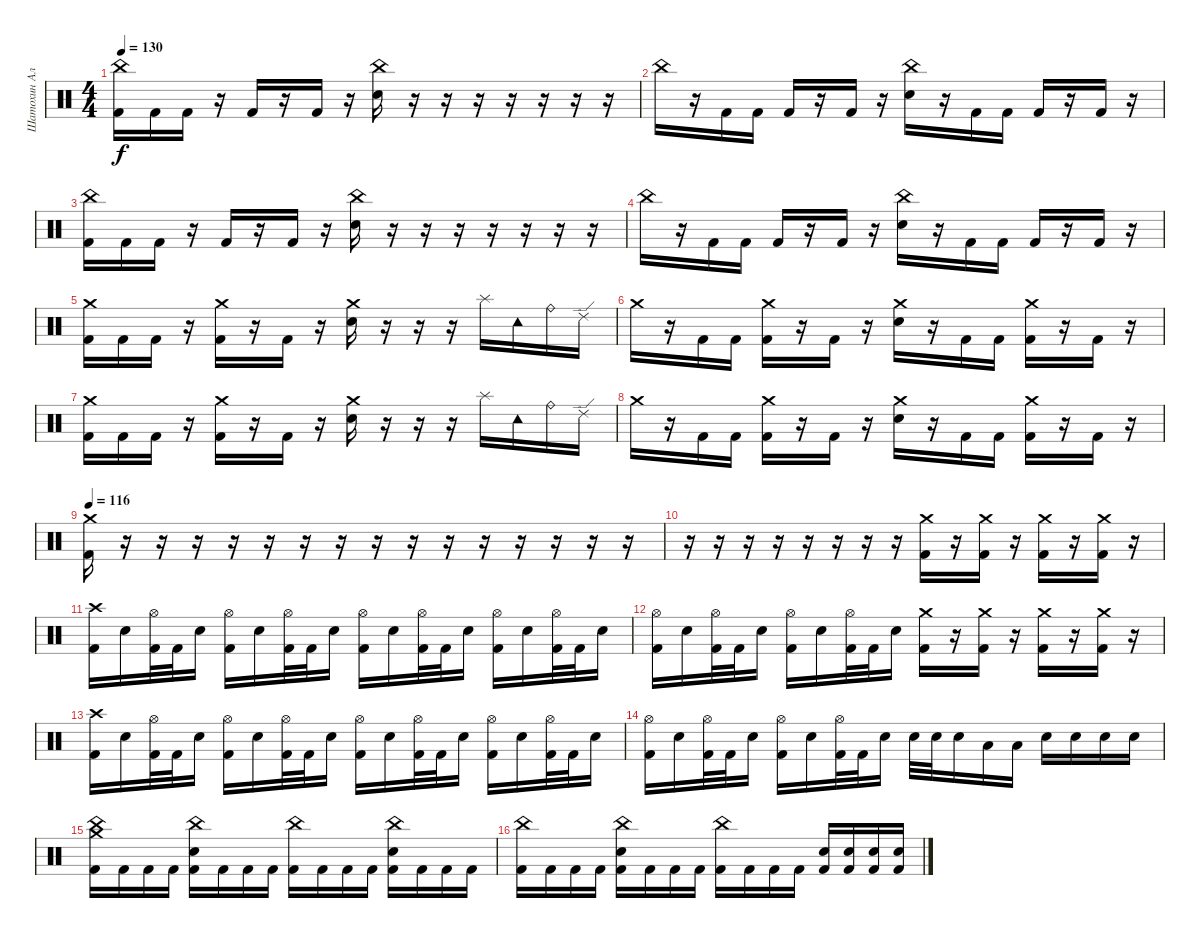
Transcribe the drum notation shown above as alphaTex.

\track ("Шатохин Алексей" "Шатохин Ал") {instrument percussion}
\staff {score}
\articulation defaults
\ts (4 4)
\tempo 130
\clef neutral
\ks c
("China (hit)" "Kick (hit) 2").16{dy f} "Kick (hit) 2".16 "Kick (hit) 2".16 r.16 "Kick (hit) 2".16 r.16 "Kick (hit) 2".16 r.16 ("China (hit)" "Electric Snare (hit)").16 r.16 r.16 r.16 r.16 r.16 r.16 r.16 |
"China (hit)".16 r.16 "Kick (hit) 2".16 "Kick (hit) 2".16 "Kick (hit) 2".16 r.16 "Kick (hit) 2".16 r.16 ("China (hit)" "Electric Snare (hit)").16 r.16 "Kick (hit) 2".16 "Kick (hit) 2".16 "Kick (hit) 2".16 r.16 "Kick (hit) 2".16 r.16 |
("China (hit)" "Kick (hit) 2").16 "Kick (hit) 2".16 "Kick (hit) 2".16 r.16 "Kick (hit) 2".16 r.16 "Kick (hit) 2".16 r.16 ("China (hit)" "Electric Snare (hit)").16 r.16 r.16 r.16 r.16 r.16 r.16 r.16 |
"China (hit)".16 r.16 "Kick (hit) 2".16 "Kick (hit) 2".16 "Kick (hit) 2".16 r.16 "Kick (hit) 2".16 r.16 ("China (hit)" "Electric Snare (hit)").16 r.16 "Kick (hit) 2".16 "Kick (hit) 2".16 "Kick (hit) 2".16 r.16 "Kick (hit) 2".16 r.16 |
("Crash medium (hit)" "Kick (hit) 2").16 "Kick (hit) 2".16 "Kick (hit) 2".16 r.16 ("Crash medium (hit)" "Kick (hit) 2").16 r.16 "Kick (hit) 2".16 r.16 ("Crash medium (hit)" "Electric Snare (hit)").16 r.16 r.16 r.16 "Splash (hit)".16 "Tambourine (hit)".16 "Ride (bell)".16 "Ride (edge) 2".16 |
"Crash medium (hit)".16 r.16 "Kick (hit) 2".16 "Kick (hit) 2".16 ("Crash medium (hit)" "Kick (hit) 2").16 r.16 "Kick (hit) 2".16 r.16 ("Crash medium (hit)" "Electric Snare (hit)").16 r.16 "Kick (hit) 2".16 "Kick (hit) 2".16 ("Crash medium (hit)" "Kick (hit) 2").16 r.16 "Kick (hit) 2".16 r.16 |
("Crash medium (hit)" "Kick (hit) 2").16 "Kick (hit) 2".16 "Kick (hit) 2".16 r.16 ("Crash medium (hit)" "Kick (hit) 2").16 r.16 "Kick (hit) 2".16 r.16 ("Crash medium (hit)" "Electric Snare (hit)").16 r.16 r.16 r.16 "Splash (hit)".16 "Tambourine (hit)".16 "Ride (bell)".16 "Ride (edge) 2".16 |
"Crash medium (hit)".16 r.16 "Kick (hit) 2".16 "Kick (hit) 2".16 ("Crash medium (hit)" "Kick (hit) 2").16 r.16 "Kick (hit) 2".16 r.16 ("Crash medium (hit)" "Electric Snare (hit)").16 r.16 "Kick (hit) 2".16 "Kick (hit) 2".16 ("Crash medium (hit)" "Kick (hit) 2").16 r.16 "Kick (hit) 2".16 r.16 |
\tempo 116
("Crash medium (hit)" "Kick (hit) 2").16 r.16 r.16 r.16 r.16 r.16 r.16 r.16 r.16 r.16 r.16 r.16 r.16 r.16 r.16 r.16 |
r.16 r.16 r.16 r.16 r.16 r.16 r.16 r.16 ("Crash medium (hit)" "Kick (hit) 2").16 r.16 ("Crash medium (hit)" "Kick (hit) 2").16 r.16 ("Crash medium (hit)" "Kick (hit) 2").16 r.16 ("Crash medium (hit)" "Kick (hit) 2").16 r.16 |
("Crash high (hit)" "Kick (hit) 2").16 "Electric Snare (hit)".16 ("Hi-Hat (open)" "Kick (hit) 2").32 "Kick (hit) 2".32 "Electric Snare (hit)".16 ("Hi-Hat (open)" "Kick (hit) 2").16 "Electric Snare (hit)".16 ("Hi-Hat (open)" "Kick (hit) 2").32 "Kick (hit) 2".32 "Electric Snare (hit)".16 ("Hi-Hat (open)" "Kick (hit) 2").16 "Electric Snare (hit)".16 ("Hi-Hat (open)" "Kick (hit) 2").32 "Kick (hit) 2".32 "Electric Snare (hit)".16 ("Hi-Hat (open)" "Kick (hit) 2").16 "Electric Snare (hit)".16 ("Hi-Hat (open)" "Kick (hit) 2").32 "Kick (hit) 2".32 "Electric Snare (hit)".16 |
("Hi-Hat (open)" "Kick (hit) 2").16 "Electric Snare (hit)".16 ("Hi-Hat (open)" "Kick (hit) 2").32 "Kick (hit) 2".32 "Electric Snare (hit)".16 ("Hi-Hat (open)" "Kick (hit) 2").16 "Electric Snare (hit)".16 ("Hi-Hat (open)" "Kick (hit) 2").32 "Kick (hit) 2".32 "Electric Snare (hit)".16 ("Crash medium (hit)" "Kick (hit) 2").16 r.16 ("Crash medium (hit)" "Kick (hit) 2").16 r.16 ("Crash medium (hit)" "Kick (hit) 2").16 r.16 ("Crash medium (hit)" "Kick (hit) 2").16 r.16 |
("Crash high (hit)" "Kick (hit) 2").16 "Electric Snare (hit)".16 ("Hi-Hat (open)" "Kick (hit) 2").32 "Kick (hit) 2".32 "Electric Snare (hit)".16 ("Hi-Hat (open)" "Kick (hit) 2").16 "Electric Snare (hit)".16 ("Hi-Hat (open)" "Kick (hit) 2").32 "Kick (hit) 2".32 "Electric Snare (hit)".16 ("Hi-Hat (open)" "Kick (hit) 2").16 "Electric Snare (hit)".16 ("Hi-Hat (open)" "Kick (hit) 2").32 "Kick (hit) 2".32 "Electric Snare (hit)".16 ("Hi-Hat (open)" "Kick (hit) 2").16 "Electric Snare (hit)".16 ("Hi-Hat (open)" "Kick (hit) 2").32 "Kick (hit) 2".32 "Electric Snare (hit)".16 |
("Hi-Hat (open)" "Kick (hit) 2").16 "Electric Snare (hit)".16 ("Hi-Hat (open)" "Kick (hit) 2").32 "Kick (hit) 2".32 "Electric Snare (hit)".16 ("Hi-Hat (open)" "Kick (hit) 2").16 "Electric Snare (hit)".16 ("Hi-Hat (open)" "Kick (hit) 2").32 "Kick (hit) 2".32 "Electric Snare (hit)".16 "Electric Snare (hit)".32 "Electric Snare (hit)".32 "Electric Snare (hit)".16 "Low Tom (hit)".16 "Low Tom (hit)".16 "Electric Snare (hit)".16 "Electric Snare (hit)".16 "Electric Snare (hit)".16 "Electric Snare (hit)".16 |
("Crash medium (hit)" "China (hit)" "Kick (hit) 2").16 "Kick (hit) 2".16 "Kick (hit) 2".16 "Kick (hit) 2".16 ("China (hit)" "Electric Snare (hit)" "Kick (hit) 2").16 "Kick (hit) 2".16 "Kick (hit) 2".16 "Kick (hit) 2".16 ("China (hit)" "Kick (hit) 2").16 "Kick (hit) 2".16 "Kick (hit) 2".16 "Kick (hit) 2".16 ("China (hit)" "Electric Snare (hit)" "Kick (hit) 2").16 "Kick (hit) 2".16 "Kick (hit) 2".16 "Kick (hit) 2".16 |
("China (hit)" "Kick (hit) 2").16 "Kick (hit) 2".16 "Kick (hit) 2".16 "Kick (hit) 2".16 ("China (hit)" "Electric Snare (hit)" "Kick (hit) 2").16 "Kick (hit) 2".16 "Kick (hit) 2".16 "Kick (hit) 2".16 ("China (hit)" "Kick (hit) 2").16 "Kick (hit) 2".16 "Kick (hit) 2".16 "Kick (hit) 2".16 ("Electric Snare (hit)" "Kick (hit) 2").16 ("Electric Snare (hit)" "Kick (hit) 2").16 ("Electric Snare (hit)" "Kick (hit) 2").16 ("Electric Snare (hit)" "Kick (hit) 2").16
